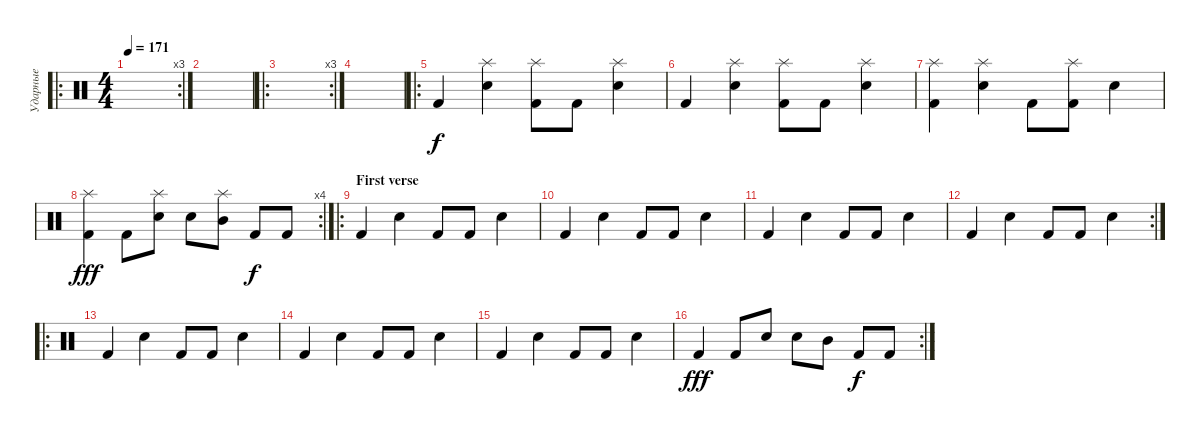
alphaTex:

\track ("Ударные" "Ударные") {instrument percussion}
\staff {score}
\articulation defaults
\ro
\rc 3
\ts (4 4)
\tempo 171
\clef neutral
\ks c
|
|
\ro
\rc 3
|
|
\ro "Kick (hit) 2".4
("Snare (hit) 2" "Splash (hit)").4 ("Kick (hit) 2" "Splash (hit)").8 "Kick (hit) 2".8 ("Snare (hit) 2" "Splash (hit)").4 |
"Kick (hit) 2".4 ("Snare (hit) 2" "Splash (hit)").4 ("Kick (hit) 2" "Splash (hit)").8 "Kick (hit) 2".8 ("Snare (hit) 2" "Splash (hit)").4 |
("Kick (hit) 2" "Splash (hit)").4 ("Snare (hit) 2" "Splash (hit)").4 "Kick (hit) 2".8 ("Kick (hit) 2" "Splash (hit)").8 "Snare (hit) 2".4 |
\rc 4
("Kick (hit) 2" "Splash (hit)").4{dy fff} "Kick (hit) 2".8 ("Snare (hit) 2" "Splash (hit)").8 "Snare (hit) 2".8 ("Mid Tom (hit)" "Splash (hit)").8 "Kick (hit) 2".8{dy f} "Kick (hit) 2".8 |
\ro
\section ("" "First verse")
"Kick (hit) 2".4 "Snare (hit) 2".4 "Kick (hit) 2".8 "Kick (hit) 2".8 "Snare (hit) 2".4 |
"Kick (hit) 2".4 "Snare (hit) 2".4 "Kick (hit) 2".8 "Kick (hit) 2".8 "Snare (hit) 2".4 |
"Kick (hit) 2".4 "Snare (hit) 2".4 "Kick (hit) 2".8 "Kick (hit) 2".8 "Snare (hit) 2".4 |
\rc 2 "Kick (hit) 2".4 "Snare (hit) 2".4 "Kick (hit) 2".8 "Kick (hit) 2".8 "Snare (hit) 2".4
|
\ro "Kick (hit) 2".4 "Snare (hit) 2".4 "Kick (hit) 2".8 "Kick (hit) 2".8 "Snare (hit) 2".4
|
"Kick (hit) 2".4 "Snare (hit) 2".4 "Kick (hit) 2".8 "Kick (hit) 2".8 "Snare (hit) 2".4 |
"Kick (hit) 2".4 "Snare (hit) 2".4 "Kick (hit) 2".8 "Kick (hit) 2".8 "Snare (hit) 2".4 |
\rc 2 "Kick (hit) 2".4{dy fff} "Kick (hit) 2".8 "Snare (hit) 2".8 "Snare (hit) 2".8 "Mid Tom (hit)".8 "Kick (hit) 2".8{dy f} "Kick (hit) 2".8
